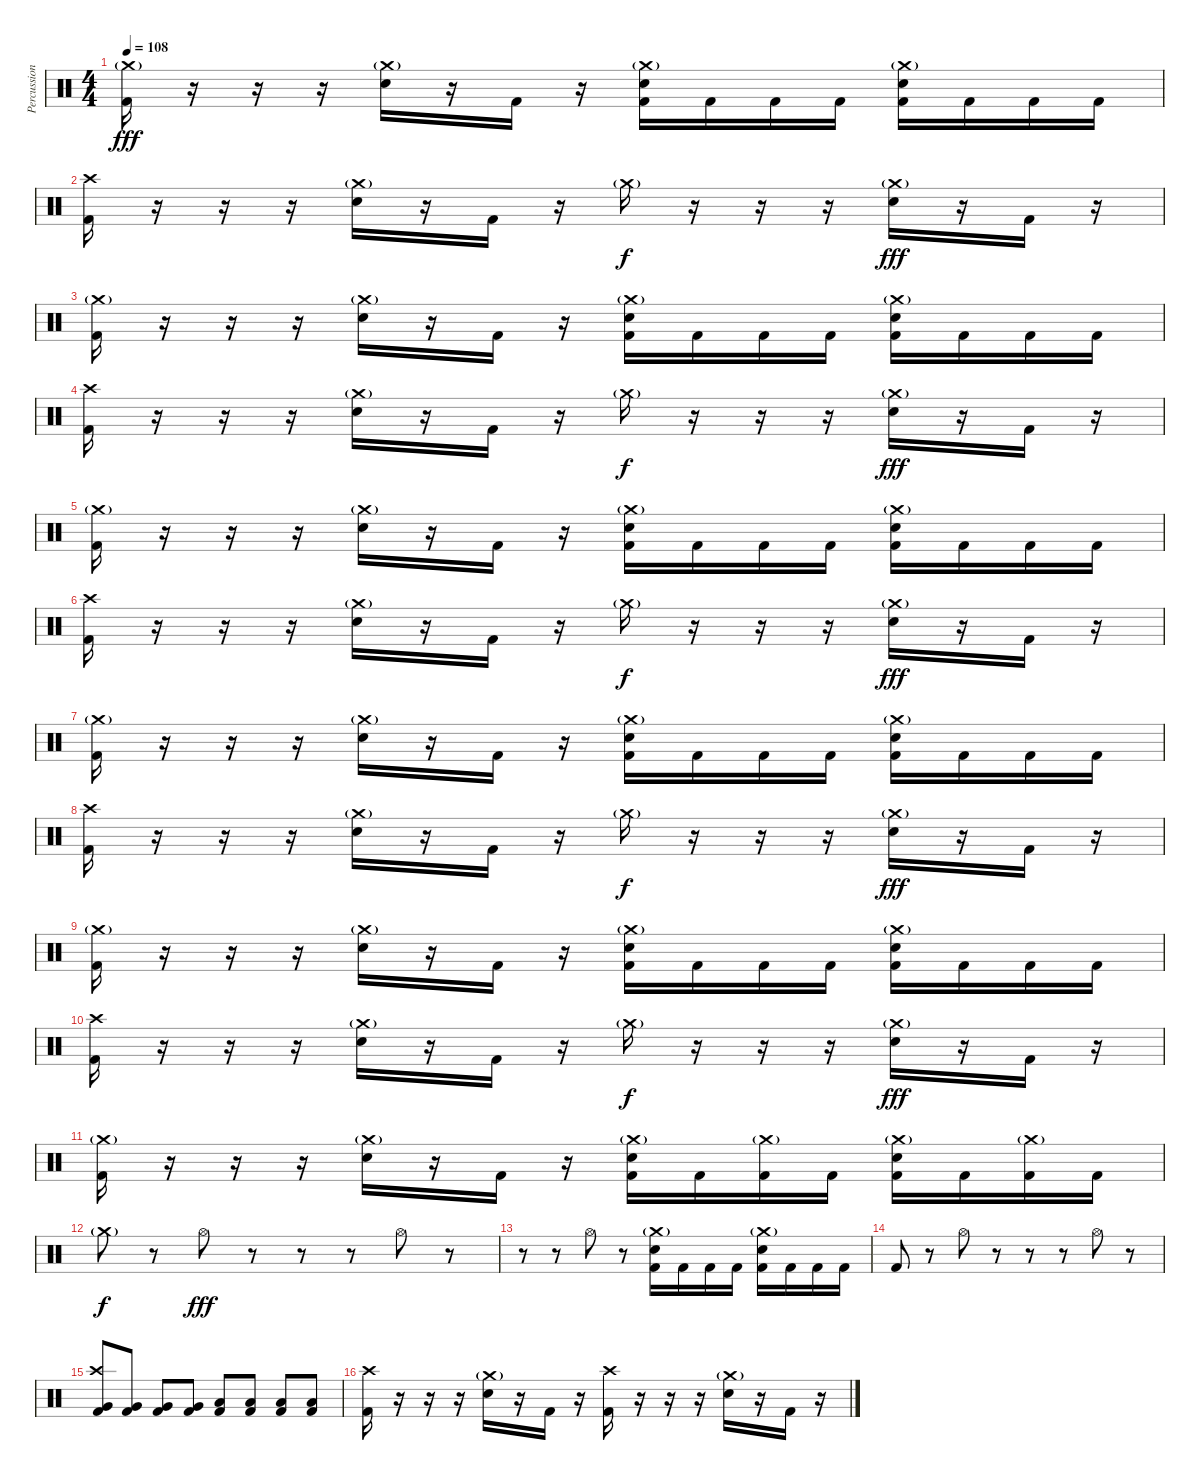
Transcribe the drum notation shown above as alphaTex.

\track ("Percussion" "Percussion") {instrument percussion}
\staff {score}
\articulation defaults
\ts (4 4)
\tempo 108
\clef neutral
\ks c
("Crash medium (hit)"{g} "Kick (hit) 2").16{dy fff} r.16 r.16 r.16 ("Crash medium (hit)"{g} "Electric Snare (hit)").16 r.16 "Kick (hit) 2".16 r.16 ("Crash medium (hit)"{g} "Electric Snare (hit)" "Kick (hit) 2").16 "Kick (hit) 2".16 "Kick (hit) 2".16 "Kick (hit) 2".16 ("Crash medium (hit)"{g} "Electric Snare (hit)" "Kick (hit) 2").16 "Kick (hit) 2".16 "Kick (hit) 2".16 "Kick (hit) 2".16 |
("Crash high (hit)" "Kick (hit) 2").16 r.16 r.16 r.16 ("Crash medium (hit)"{g} "Electric Snare (hit)").16 r.16 "Kick (hit) 2".16 r.16 "Crash medium (hit)"{g}.16{dy f} r.16 r.16 r.16 ("Crash medium (hit)"{g} "Electric Snare (hit)").16{dy fff} r.16 "Kick (hit) 2".16 r.16 |
("Crash medium (hit)"{g} "Kick (hit) 2").16 r.16 r.16 r.16 ("Crash medium (hit)"{g} "Electric Snare (hit)").16 r.16 "Kick (hit) 2".16 r.16 ("Crash medium (hit)"{g} "Electric Snare (hit)" "Kick (hit) 2").16 "Kick (hit) 2".16 "Kick (hit) 2".16 "Kick (hit) 2".16 ("Crash medium (hit)"{g} "Electric Snare (hit)" "Kick (hit) 2").16 "Kick (hit) 2".16 "Kick (hit) 2".16 "Kick (hit) 2".16 |
("Crash high (hit)" "Kick (hit) 2").16 r.16 r.16 r.16 ("Crash medium (hit)"{g} "Electric Snare (hit)").16 r.16 "Kick (hit) 2".16 r.16 "Crash medium (hit)"{g}.16{dy f} r.16 r.16 r.16 ("Crash medium (hit)"{g} "Electric Snare (hit)").16{dy fff} r.16 "Kick (hit) 2".16 r.16 |
("Crash medium (hit)"{g} "Kick (hit) 2").16 r.16 r.16 r.16 ("Crash medium (hit)"{g} "Electric Snare (hit)").16 r.16 "Kick (hit) 2".16 r.16 ("Crash medium (hit)"{g} "Electric Snare (hit)" "Kick (hit) 2").16 "Kick (hit) 2".16 "Kick (hit) 2".16 "Kick (hit) 2".16 ("Crash medium (hit)"{g} "Electric Snare (hit)" "Kick (hit) 2").16 "Kick (hit) 2".16 "Kick (hit) 2".16 "Kick (hit) 2".16 |
("Crash high (hit)" "Kick (hit) 2").16 r.16 r.16 r.16 ("Crash medium (hit)"{g} "Electric Snare (hit)").16 r.16 "Kick (hit) 2".16 r.16 "Crash medium (hit)"{g}.16{dy f} r.16 r.16 r.16 ("Crash medium (hit)"{g} "Electric Snare (hit)").16{dy fff} r.16 "Kick (hit) 2".16 r.16 |
("Crash medium (hit)"{g} "Kick (hit) 2").16 r.16 r.16 r.16 ("Crash medium (hit)"{g} "Electric Snare (hit)").16 r.16 "Kick (hit) 2".16 r.16 ("Crash medium (hit)"{g} "Electric Snare (hit)" "Kick (hit) 2").16 "Kick (hit) 2".16 "Kick (hit) 2".16 "Kick (hit) 2".16 ("Crash medium (hit)"{g} "Electric Snare (hit)" "Kick (hit) 2").16 "Kick (hit) 2".16 "Kick (hit) 2".16 "Kick (hit) 2".16 |
("Crash high (hit)" "Kick (hit) 2").16 r.16 r.16 r.16 ("Crash medium (hit)"{g} "Electric Snare (hit)").16 r.16 "Kick (hit) 2".16 r.16 "Crash medium (hit)"{g}.16{dy f} r.16 r.16 r.16 ("Crash medium (hit)"{g} "Electric Snare (hit)").16{dy fff} r.16 "Kick (hit) 2".16 r.16 |
("Crash medium (hit)"{g} "Kick (hit) 2").16 r.16 r.16 r.16 ("Crash medium (hit)"{g} "Electric Snare (hit)").16 r.16 "Kick (hit) 2".16 r.16 ("Crash medium (hit)"{g} "Electric Snare (hit)" "Kick (hit) 2").16 "Kick (hit) 2".16 "Kick (hit) 2".16 "Kick (hit) 2".16 ("Crash medium (hit)"{g} "Electric Snare (hit)" "Kick (hit) 2").16 "Kick (hit) 2".16 "Kick (hit) 2".16 "Kick (hit) 2".16 |
("Crash high (hit)" "Kick (hit) 2").16 r.16 r.16 r.16 ("Crash medium (hit)"{g} "Electric Snare (hit)").16 r.16 "Kick (hit) 2".16 r.16 "Crash medium (hit)"{g}.16{dy f} r.16 r.16 r.16 ("Crash medium (hit)"{g} "Electric Snare (hit)").16{dy fff} r.16 "Kick (hit) 2".16 r.16 |
("Crash medium (hit)"{g} "Kick (hit) 2").16 r.16 r.16 r.16 ("Crash medium (hit)"{g} "Electric Snare (hit)").16 r.16 "Kick (hit) 2".16 r.16 ("Crash medium (hit)"{g} "Electric Snare (hit)" "Kick (hit) 2").16 "Kick (hit) 2".16 ("Crash medium (hit)"{g} "Kick (hit) 2").16 "Kick (hit) 2".16 ("Crash medium (hit)"{g} "Electric Snare (hit)" "Kick (hit) 2").16 "Kick (hit) 2".16 ("Crash medium (hit)"{g} "Kick (hit) 2").16 "Kick (hit) 2".16 |
"Crash medium (hit)"{g}.8{dy f} r.8 "Hi-Hat (open)".8{dy fff} r.8 r.8 r.8 "Hi-Hat (open)".8 r.8 |
r.8 r.8 "Hi-Hat (open)".8 r.8 ("Crash medium (hit)"{g} "Electric Snare (hit)" "Kick (hit) 2").16 "Kick (hit) 2".16 "Kick (hit) 2".16 "Kick (hit) 2".16 ("Crash medium (hit)"{g} "Electric Snare (hit)" "Kick (hit) 2").16 "Kick (hit) 2".16 "Kick (hit) 2".16 "Kick (hit) 2".16 |
"Kick (hit) 2".8 r.8 "Hi-Hat (open)".8 r.8 r.8 r.8 "Hi-Hat (open)".8 r.8 |
("Crash high (hit)" "Very Low Tom (hit)" "Kick (hit) 2").8 ("Very Low Tom (hit)" "Kick (hit) 2").8 ("Very Low Tom (hit)" "Kick (hit) 2").8 ("Very Low Tom (hit)" "Kick (hit) 2").8 ("Low Floor Tom (hit)" "Kick (hit) 2").8 ("Low Floor Tom (hit)" "Kick (hit) 2").8 ("Low Floor Tom (hit)" "Kick (hit) 2").8 ("Low Floor Tom (hit)" "Kick (hit) 2").8 |
("Crash high (hit)" "Kick (hit) 2").16 r.16 r.16 r.16 ("Crash medium (hit)"{g} "Electric Snare (hit)").16 r.16 "Kick (hit) 2".16 r.16 ("Crash high (hit)" "Kick (hit) 2").16 r.16 r.16 r.16 ("Crash medium (hit)"{g} "Electric Snare (hit)").16 r.16 "Kick (hit) 2".16 r.16
